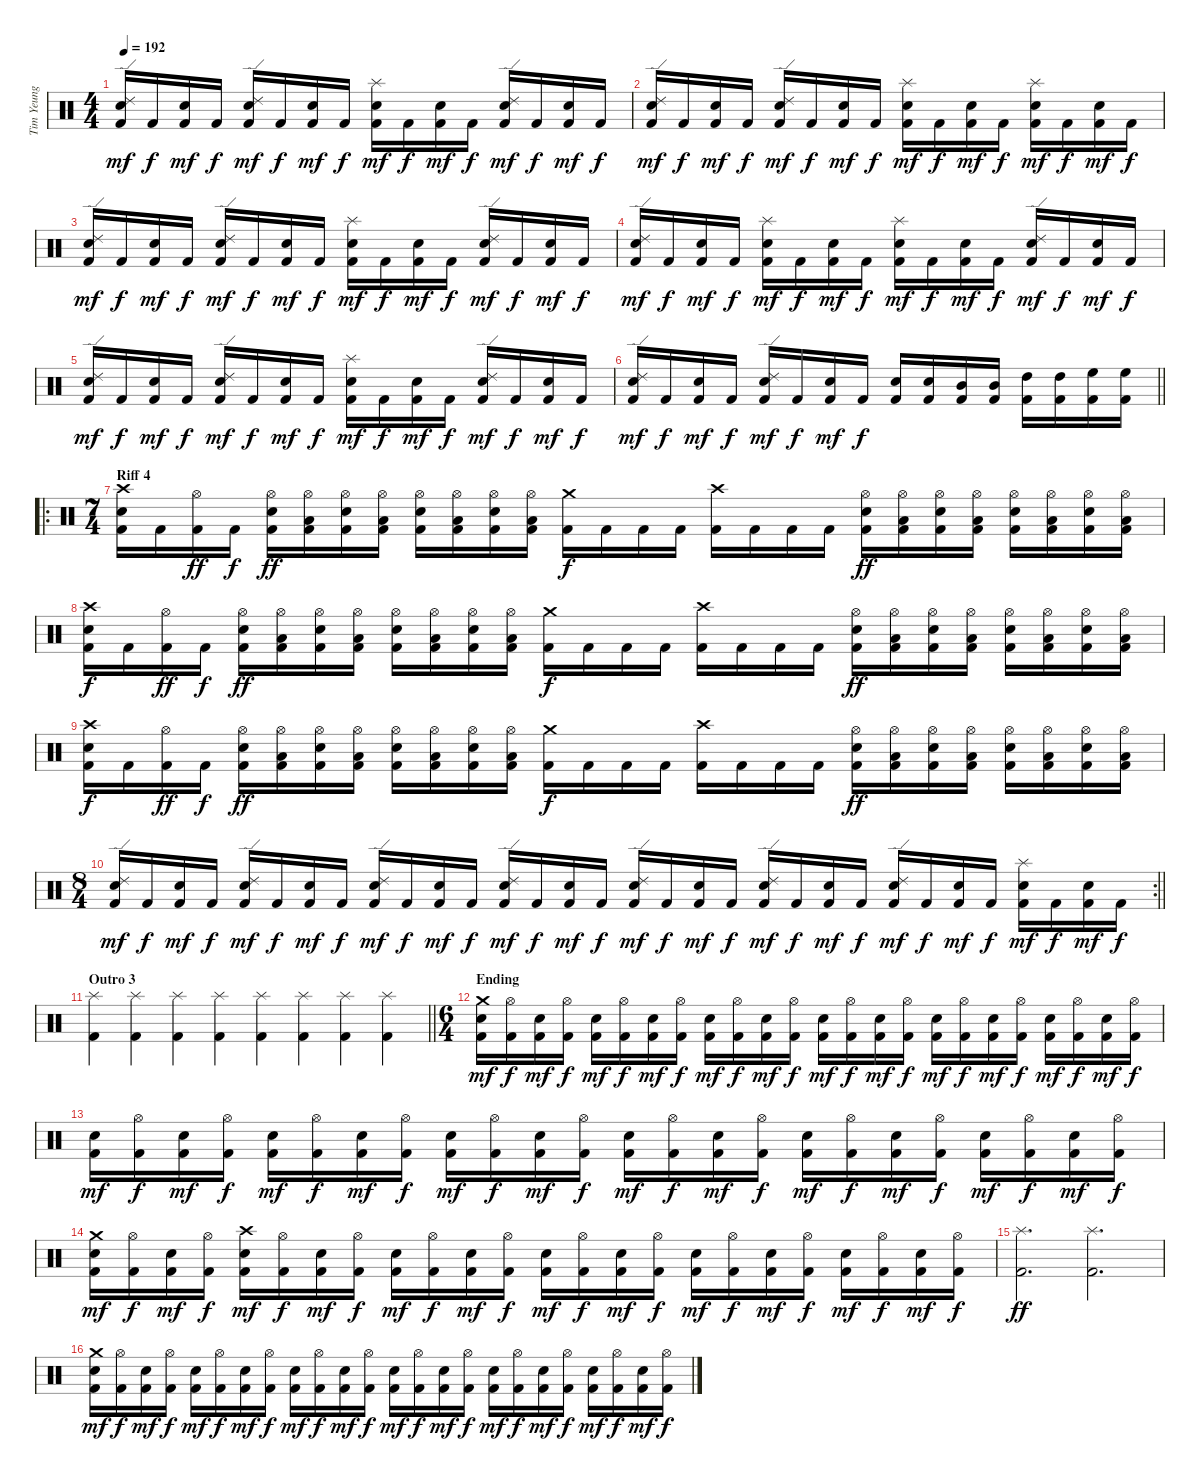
\track ("Tim Yeung" "Tim Yeung") {instrument percussion}
\staff {score}
\articulation defaults
\ts (4 4)
\tempo 192
\clef neutral
\ks c
("Snare (hit) 2" "Ride (edge) 2" "Kick (hit) 2").16{dy mf} "Kick (hit) 2".16{dy f} ("Snare (hit) 2" "Kick (hit) 2").16{dy mf} "Kick (hit) 2".16{dy f} ("Snare (hit) 2" "Ride (edge) 2" "Kick (hit) 2").16{dy mf} "Kick (hit) 2".16{dy f} ("Snare (hit) 2" "Kick (hit) 2").16{dy mf} "Kick (hit) 2".16{dy f} ("Snare (hit) 2" "Splash (hit)" "Kick (hit) 2").16{dy mf} "Kick (hit) 2".16{dy f} ("Snare (hit) 2" "Kick (hit) 2").16{dy mf} "Kick (hit) 2".16{dy f} ("Snare (hit) 2" "Ride (edge) 2" "Kick (hit) 2").16{dy mf} "Kick (hit) 2".16{dy f} ("Snare (hit) 2" "Kick (hit) 2").16{dy mf} "Kick (hit) 2".16{dy f} |
("Snare (hit) 2" "Ride (edge) 2" "Kick (hit) 2").16{dy mf} "Kick (hit) 2".16{dy f} ("Snare (hit) 2" "Kick (hit) 2").16{dy mf} "Kick (hit) 2".16{dy f} ("Snare (hit) 2" "Ride (edge) 2" "Kick (hit) 2").16{dy mf} "Kick (hit) 2".16{dy f} ("Snare (hit) 2" "Kick (hit) 2").16{dy mf} "Kick (hit) 2".16{dy f} ("Snare (hit) 2" "Splash (hit)" "Kick (hit) 2").16{dy mf} "Kick (hit) 2".16{dy f} ("Snare (hit) 2" "Kick (hit) 2").16{dy mf} "Kick (hit) 2".16{dy f} ("Snare (hit) 2" "Splash (hit)" "Kick (hit) 2").16{dy mf} "Kick (hit) 2".16{dy f} ("Snare (hit) 2" "Kick (hit) 2").16{dy mf} "Kick (hit) 2".16{dy f} |
("Snare (hit) 2" "Ride (edge) 2" "Kick (hit) 2").16{dy mf} "Kick (hit) 2".16{dy f} ("Snare (hit) 2" "Kick (hit) 2").16{dy mf} "Kick (hit) 2".16{dy f} ("Snare (hit) 2" "Ride (edge) 2" "Kick (hit) 2").16{dy mf} "Kick (hit) 2".16{dy f} ("Snare (hit) 2" "Kick (hit) 2").16{dy mf} "Kick (hit) 2".16{dy f} ("Snare (hit) 2" "Splash (hit)" "Kick (hit) 2").16{dy mf} "Kick (hit) 2".16{dy f} ("Snare (hit) 2" "Kick (hit) 2").16{dy mf} "Kick (hit) 2".16{dy f} ("Snare (hit) 2" "Ride (edge) 2" "Kick (hit) 2").16{dy mf} "Kick (hit) 2".16{dy f} ("Snare (hit) 2" "Kick (hit) 2").16{dy mf} "Kick (hit) 2".16{dy f} |
("Snare (hit) 2" "Ride (edge) 2" "Kick (hit) 2").16{dy mf} "Kick (hit) 2".16{dy f} ("Snare (hit) 2" "Kick (hit) 2").16{dy mf} "Kick (hit) 2".16{dy f} ("Snare (hit) 2" "Splash (hit)" "Kick (hit) 2").16{dy mf} "Kick (hit) 2".16{dy f} ("Snare (hit) 2" "Kick (hit) 2").16{dy mf} "Kick (hit) 2".16{dy f} ("Snare (hit) 2" "Splash (hit)" "Kick (hit) 2").16{dy mf} "Kick (hit) 2".16{dy f} ("Snare (hit) 2" "Kick (hit) 2").16{dy mf} "Kick (hit) 2".16{dy f} ("Snare (hit) 2" "Ride (edge) 2" "Kick (hit) 2").16{dy mf} "Kick (hit) 2".16{dy f} ("Snare (hit) 2" "Kick (hit) 2").16{dy mf} "Kick (hit) 2".16{dy f} |
("Snare (hit) 2" "Ride (edge) 2" "Kick (hit) 2").16{dy mf} "Kick (hit) 2".16{dy f} ("Snare (hit) 2" "Kick (hit) 2").16{dy mf} "Kick (hit) 2".16{dy f} ("Snare (hit) 2" "Ride (edge) 2" "Kick (hit) 2").16{dy mf} "Kick (hit) 2".16{dy f} ("Snare (hit) 2" "Kick (hit) 2").16{dy mf} "Kick (hit) 2".16{dy f} ("Snare (hit) 2" "Splash (hit)" "Kick (hit) 2").16{dy mf} "Kick (hit) 2".16{dy f} ("Snare (hit) 2" "Kick (hit) 2").16{dy mf} "Kick (hit) 2".16{dy f} ("Snare (hit) 2" "Ride (edge) 2" "Kick (hit) 2").16{dy mf} "Kick (hit) 2".16{dy f} ("Snare (hit) 2" "Kick (hit) 2").16{dy mf} "Kick (hit) 2".16{dy f} |
\barLineRight lightlight
("Snare (hit) 2" "Ride (edge) 2" "Kick (hit) 2").16{dy mf} "Kick (hit) 2".16{dy f} ("Snare (hit) 2" "Kick (hit) 2").16{dy mf} "Kick (hit) 2".16{dy f} ("Snare (hit) 2" "Ride (edge) 2" "Kick (hit) 2").16{dy mf} "Kick (hit) 2".16{dy f} ("Snare (hit) 2" "Kick (hit) 2").16{dy mf} "Kick (hit) 2".16{dy f} ("Snare (hit) 2" "Kick (hit) 2").16 ("Snare (hit) 2" "Kick (hit) 2").16 ("Mid Tom (hit)" "Kick (hit) 2").16 ("Mid Tom (hit)" "Kick (hit) 2").16 ("High Tom (hit)" "Kick (hit) 2").16 ("High Tom (hit)" "Kick (hit) 2").16 ("High Floor Tom (hit)" "Kick (hit) 2").16 ("High Floor Tom (hit)" "Kick (hit) 2").16 |
\ro
\ts (7 4)
\section ("" "Riff 4")
("Crash high (hit)" "Snare (hit) 2" "Kick (hit) 2").16 "Kick (hit) 2".16 ("Hi-Hat (open)" "Kick (hit) 2").16{dy ff} "Kick (hit) 2".16{dy f} ("Snare (hit) 2" "Hi-Hat (open)" "Kick (hit) 2").16{dy ff} ("Low Tom (hit)" "Hi-Hat (open)" "Kick (hit) 2").16 ("Snare (hit) 2" "Hi-Hat (open)" "Kick (hit) 2").16 ("Low Tom (hit)" "Hi-Hat (open)" "Kick (hit) 2").16 ("Snare (hit) 2" "Hi-Hat (open)" "Kick (hit) 2").16 ("Low Tom (hit)" "Hi-Hat (open)" "Kick (hit) 2").16 ("Snare (hit) 2" "Hi-Hat (open)" "Kick (hit) 2").16 ("Low Tom (hit)" "Hi-Hat (open)" "Kick (hit) 2").16 ("Crash medium (hit)" "Kick (hit) 2").16{dy f} "Kick (hit) 2".16 "Kick (hit) 2".16 "Kick (hit) 2".16 ("Crash high (hit)" "Kick (hit) 2").16 "Kick (hit) 2".16 "Kick (hit) 2".16 "Kick (hit) 2".16 ("Snare (hit) 2" "Hi-Hat (open)" "Kick (hit) 2").16{dy ff} ("Low Tom (hit)" "Hi-Hat (open)" "Kick (hit) 2").16 ("Snare (hit) 2" "Hi-Hat (open)" "Kick (hit) 2").16 ("Low Tom (hit)" "Hi-Hat (open)" "Kick (hit) 2").16 ("Snare (hit) 2" "Hi-Hat (open)" "Kick (hit) 2").16 ("Low Tom (hit)" "Hi-Hat (open)" "Kick (hit) 2").16 ("Snare (hit) 2" "Hi-Hat (open)" "Kick (hit) 2").16 ("Low Tom (hit)" "Hi-Hat (open)" "Kick (hit) 2").16 |
("Crash high (hit)" "Snare (hit) 2" "Kick (hit) 2").16{dy f} "Kick (hit) 2".16 ("Hi-Hat (open)" "Kick (hit) 2").16{dy ff} "Kick (hit) 2".16{dy f} ("Snare (hit) 2" "Hi-Hat (open)" "Kick (hit) 2").16{dy ff} ("Low Tom (hit)" "Hi-Hat (open)" "Kick (hit) 2").16 ("Snare (hit) 2" "Hi-Hat (open)" "Kick (hit) 2").16 ("Low Tom (hit)" "Hi-Hat (open)" "Kick (hit) 2").16 ("Snare (hit) 2" "Hi-Hat (open)" "Kick (hit) 2").16 ("Low Tom (hit)" "Hi-Hat (open)" "Kick (hit) 2").16 ("Snare (hit) 2" "Hi-Hat (open)" "Kick (hit) 2").16 ("Low Tom (hit)" "Hi-Hat (open)" "Kick (hit) 2").16 ("Crash medium (hit)" "Kick (hit) 2").16{dy f} "Kick (hit) 2".16 "Kick (hit) 2".16 "Kick (hit) 2".16 ("Crash high (hit)" "Kick (hit) 2").16 "Kick (hit) 2".16 "Kick (hit) 2".16 "Kick (hit) 2".16 ("Snare (hit) 2" "Hi-Hat (open)" "Kick (hit) 2").16{dy ff} ("Low Tom (hit)" "Hi-Hat (open)" "Kick (hit) 2").16 ("Snare (hit) 2" "Hi-Hat (open)" "Kick (hit) 2").16 ("Low Tom (hit)" "Hi-Hat (open)" "Kick (hit) 2").16 ("Snare (hit) 2" "Hi-Hat (open)" "Kick (hit) 2").16 ("Low Tom (hit)" "Hi-Hat (open)" "Kick (hit) 2").16 ("Snare (hit) 2" "Hi-Hat (open)" "Kick (hit) 2").16 ("Low Tom (hit)" "Hi-Hat (open)" "Kick (hit) 2").16 |
("Crash high (hit)" "Snare (hit) 2" "Kick (hit) 2").16{dy f} "Kick (hit) 2".16 ("Hi-Hat (open)" "Kick (hit) 2").16{dy ff} "Kick (hit) 2".16{dy f} ("Snare (hit) 2" "Hi-Hat (open)" "Kick (hit) 2").16{dy ff} ("Low Tom (hit)" "Hi-Hat (open)" "Kick (hit) 2").16 ("Snare (hit) 2" "Hi-Hat (open)" "Kick (hit) 2").16 ("Low Tom (hit)" "Hi-Hat (open)" "Kick (hit) 2").16 ("Snare (hit) 2" "Hi-Hat (open)" "Kick (hit) 2").16 ("Low Tom (hit)" "Hi-Hat (open)" "Kick (hit) 2").16 ("Snare (hit) 2" "Hi-Hat (open)" "Kick (hit) 2").16 ("Low Tom (hit)" "Hi-Hat (open)" "Kick (hit) 2").16 ("Crash medium (hit)" "Kick (hit) 2").16{dy f} "Kick (hit) 2".16 "Kick (hit) 2".16 "Kick (hit) 2".16 ("Crash high (hit)" "Kick (hit) 2").16 "Kick (hit) 2".16 "Kick (hit) 2".16 "Kick (hit) 2".16 ("Snare (hit) 2" "Hi-Hat (open)" "Kick (hit) 2").16{dy ff} ("Low Tom (hit)" "Hi-Hat (open)" "Kick (hit) 2").16 ("Snare (hit) 2" "Hi-Hat (open)" "Kick (hit) 2").16 ("Low Tom (hit)" "Hi-Hat (open)" "Kick (hit) 2").16 ("Snare (hit) 2" "Hi-Hat (open)" "Kick (hit) 2").16 ("Low Tom (hit)" "Hi-Hat (open)" "Kick (hit) 2").16 ("Snare (hit) 2" "Hi-Hat (open)" "Kick (hit) 2").16 ("Low Tom (hit)" "Hi-Hat (open)" "Kick (hit) 2").16 |
\rc 2
\ts (8 4)
\barLineRight lightlight
("Snare (hit) 2" "Ride (edge) 2" "Kick (hit) 2").16{dy mf} "Kick (hit) 2".16{dy f} ("Snare (hit) 2" "Kick (hit) 2").16{dy mf} "Kick (hit) 2".16{dy f} ("Snare (hit) 2" "Ride (edge) 2" "Kick (hit) 2").16{dy mf} "Kick (hit) 2".16{dy f} ("Snare (hit) 2" "Kick (hit) 2").16{dy mf} "Kick (hit) 2".16{dy f} ("Snare (hit) 2" "Ride (edge) 2" "Kick (hit) 2").16{dy mf} "Kick (hit) 2".16{dy f} ("Snare (hit) 2" "Kick (hit) 2").16{dy mf} "Kick (hit) 2".16{dy f} ("Snare (hit) 2" "Ride (edge) 2" "Kick (hit) 2").16{dy mf} "Kick (hit) 2".16{dy f} ("Snare (hit) 2" "Kick (hit) 2").16{dy mf} "Kick (hit) 2".16{dy f} ("Snare (hit) 2" "Ride (edge) 2" "Kick (hit) 2").16{dy mf} "Kick (hit) 2".16{dy f} ("Snare (hit) 2" "Kick (hit) 2").16{dy mf} "Kick (hit) 2".16{dy f} ("Snare (hit) 2" "Ride (edge) 2" "Kick (hit) 2").16{dy mf} "Kick (hit) 2".16{dy f} ("Snare (hit) 2" "Kick (hit) 2").16{dy mf} "Kick (hit) 2".16{dy f} ("Snare (hit) 2" "Ride (edge) 2" "Kick (hit) 2").16{dy mf} "Kick (hit) 2".16{dy f} ("Snare (hit) 2" "Kick (hit) 2").16{dy mf} "Kick (hit) 2".16{dy f} ("Snare (hit) 2" "Splash (hit)" "Kick (hit) 2").16{dy mf} "Kick (hit) 2".16{dy f} ("Snare (hit) 2" "Kick (hit) 2").16{dy mf} "Kick (hit) 2".16{dy f} |
\section ("" "Outro 3")
\barLineRight lightlight
("Splash (hit)" "Kick (hit) 2").4 ("Splash (hit)" "Kick (hit) 2").4 ("Splash (hit)" "Kick (hit) 2").4 ("Splash (hit)" "Kick (hit) 2").4 ("Splash (hit)" "Kick (hit) 2").4 ("Splash (hit)" "Kick (hit) 2").4 ("Splash (hit)" "Kick (hit) 2").4 ("Splash (hit)" "Kick (hit) 2").4 |
\ts (6 4)
\section ("" "Ending")
("Crash medium (hit)" "Snare (hit) 2" "Kick (hit) 2").16{dy mf} ("Hi-Hat (open)" "Kick (hit) 2").16{dy f} ("Snare (hit) 2" "Kick (hit) 2").16{dy mf} ("Hi-Hat (open)" "Kick (hit) 2").16{dy f} ("Snare (hit) 2" "Kick (hit) 2").16{dy mf} ("Hi-Hat (open)" "Kick (hit) 2").16{dy f} ("Snare (hit) 2" "Kick (hit) 2").16{dy mf} ("Hi-Hat (open)" "Kick (hit) 2").16{dy f} ("Snare (hit) 2" "Kick (hit) 2").16{dy mf} ("Hi-Hat (open)" "Kick (hit) 2").16{dy f} ("Snare (hit) 2" "Kick (hit) 2").16{dy mf} ("Hi-Hat (open)" "Kick (hit) 2").16{dy f} ("Snare (hit) 2" "Kick (hit) 2").16{dy mf} ("Hi-Hat (open)" "Kick (hit) 2").16{dy f} ("Snare (hit) 2" "Kick (hit) 2").16{dy mf} ("Hi-Hat (open)" "Kick (hit) 2").16{dy f} ("Snare (hit) 2" "Kick (hit) 2").16{dy mf} ("Hi-Hat (open)" "Kick (hit) 2").16{dy f} ("Snare (hit) 2" "Kick (hit) 2").16{dy mf} ("Hi-Hat (open)" "Kick (hit) 2").16{dy f} ("Snare (hit) 2" "Kick (hit) 2").16{dy mf} ("Hi-Hat (open)" "Kick (hit) 2").16{dy f} ("Snare (hit) 2" "Kick (hit) 2").16{dy mf} ("Hi-Hat (open)" "Kick (hit) 2").16{dy f} |
("Snare (hit) 2" "Kick (hit) 2").16{dy mf} ("Hi-Hat (open)" "Kick (hit) 2").16{dy f} ("Snare (hit) 2" "Kick (hit) 2").16{dy mf} ("Hi-Hat (open)" "Kick (hit) 2").16{dy f} ("Snare (hit) 2" "Kick (hit) 2").16{dy mf} ("Hi-Hat (open)" "Kick (hit) 2").16{dy f} ("Snare (hit) 2" "Kick (hit) 2").16{dy mf} ("Hi-Hat (open)" "Kick (hit) 2").16{dy f} ("Snare (hit) 2" "Kick (hit) 2").16{dy mf} ("Hi-Hat (open)" "Kick (hit) 2").16{dy f} ("Snare (hit) 2" "Kick (hit) 2").16{dy mf} ("Hi-Hat (open)" "Kick (hit) 2").16{dy f} ("Snare (hit) 2" "Kick (hit) 2").16{dy mf} ("Hi-Hat (open)" "Kick (hit) 2").16{dy f} ("Snare (hit) 2" "Kick (hit) 2").16{dy mf} ("Hi-Hat (open)" "Kick (hit) 2").16{dy f} ("Snare (hit) 2" "Kick (hit) 2").16{dy mf} ("Hi-Hat (open)" "Kick (hit) 2").16{dy f} ("Snare (hit) 2" "Kick (hit) 2").16{dy mf} ("Hi-Hat (open)" "Kick (hit) 2").16{dy f} ("Snare (hit) 2" "Kick (hit) 2").16{dy mf} ("Hi-Hat (open)" "Kick (hit) 2").16{dy f} ("Snare (hit) 2" "Kick (hit) 2").16{dy mf} ("Hi-Hat (open)" "Kick (hit) 2").16{dy f} |
("Crash medium (hit)" "Snare (hit) 2" "Kick (hit) 2").16{dy mf} ("Hi-Hat (open)" "Kick (hit) 2").16{dy f} ("Snare (hit) 2" "Kick (hit) 2").16{dy mf} ("Hi-Hat (open)" "Kick (hit) 2").16{dy f} ("Crash high (hit)" "Snare (hit) 2" "Kick (hit) 2").16{dy mf} ("Hi-Hat (open)" "Kick (hit) 2").16{dy f} ("Snare (hit) 2" "Kick (hit) 2").16{dy mf} ("Hi-Hat (open)" "Kick (hit) 2").16{dy f} ("Snare (hit) 2" "Kick (hit) 2").16{dy mf} ("Hi-Hat (open)" "Kick (hit) 2").16{dy f} ("Snare (hit) 2" "Kick (hit) 2").16{dy mf} ("Hi-Hat (open)" "Kick (hit) 2").16{dy f} ("Snare (hit) 2" "Kick (hit) 2").16{dy mf} ("Hi-Hat (open)" "Kick (hit) 2").16{dy f} ("Snare (hit) 2" "Kick (hit) 2").16{dy mf} ("Hi-Hat (open)" "Kick (hit) 2").16{dy f} ("Snare (hit) 2" "Kick (hit) 2").16{dy mf} ("Hi-Hat (open)" "Kick (hit) 2").16{dy f} ("Snare (hit) 2" "Kick (hit) 2").16{dy mf} ("Hi-Hat (open)" "Kick (hit) 2").16{dy f} ("Snare (hit) 2" "Kick (hit) 2").16{dy mf} ("Hi-Hat (open)" "Kick (hit) 2").16{dy f} ("Snare (hit) 2" "Kick (hit) 2").16{dy mf} ("Hi-Hat (open)" "Kick (hit) 2").16{dy f} |
("Splash (hit)" "Kick (hit) 2").2{d dy ff} ("Splash (hit)" "Kick (hit) 2").2{d} |
("Crash medium (hit)" "Snare (hit) 2" "Kick (hit) 2").16{dy mf} ("Hi-Hat (open)" "Kick (hit) 2").16{dy f} ("Snare (hit) 2" "Kick (hit) 2").16{dy mf} ("Hi-Hat (open)" "Kick (hit) 2").16{dy f} ("Snare (hit) 2" "Kick (hit) 2").16{dy mf} ("Hi-Hat (open)" "Kick (hit) 2").16{dy f} ("Snare (hit) 2" "Kick (hit) 2").16{dy mf} ("Hi-Hat (open)" "Kick (hit) 2").16{dy f} ("Snare (hit) 2" "Kick (hit) 2").16{dy mf} ("Hi-Hat (open)" "Kick (hit) 2").16{dy f} ("Snare (hit) 2" "Kick (hit) 2").16{dy mf} ("Hi-Hat (open)" "Kick (hit) 2").16{dy f} ("Snare (hit) 2" "Kick (hit) 2").16{dy mf} ("Hi-Hat (open)" "Kick (hit) 2").16{dy f} ("Snare (hit) 2" "Kick (hit) 2").16{dy mf} ("Hi-Hat (open)" "Kick (hit) 2").16{dy f} ("Snare (hit) 2" "Kick (hit) 2").16{dy mf} ("Hi-Hat (open)" "Kick (hit) 2").16{dy f} ("Snare (hit) 2" "Kick (hit) 2").16{dy mf} ("Hi-Hat (open)" "Kick (hit) 2").16{dy f} ("Snare (hit) 2" "Kick (hit) 2").16{dy mf} ("Hi-Hat (open)" "Kick (hit) 2").16{dy f} ("Snare (hit) 2" "Kick (hit) 2").16{dy mf} ("Hi-Hat (open)" "Kick (hit) 2").16{dy f}
